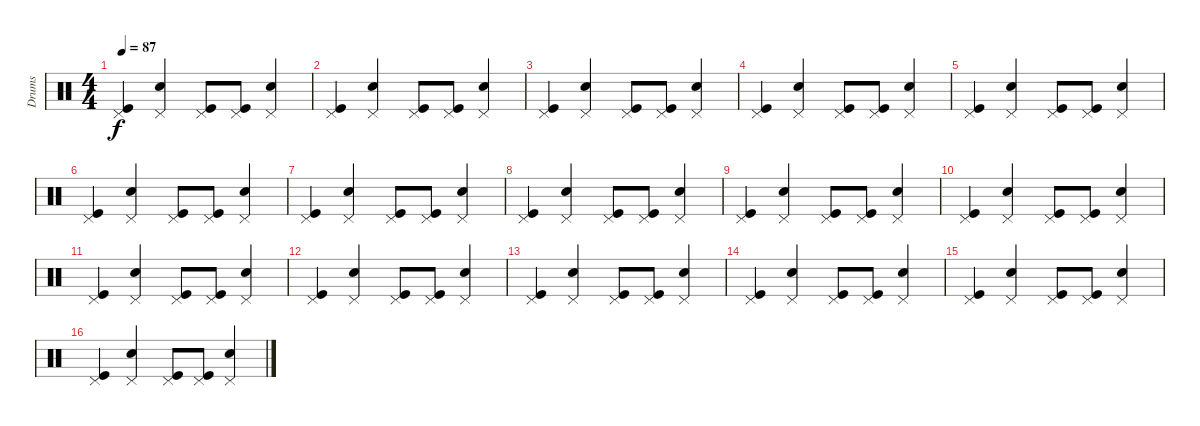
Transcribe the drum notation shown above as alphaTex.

\track ("Drums" "Drums") {instrument percussion}
\staff {score}
\articulation defaults
\ts (4 4)
\tempo 87
\clef neutral
\ks c
("Pedal Hi-Hat (hit)" "Kick (hit)").4{dy f} ("Pedal Hi-Hat (hit)" "Electric Snare (hit)").4 ("Pedal Hi-Hat (hit)" "Kick (hit)").8 ("Pedal Hi-Hat (hit)" "Kick (hit)").8 ("Pedal Hi-Hat (hit)" "Snare (hit) 2").4 |
("Pedal Hi-Hat (hit)" "Kick (hit)").4 ("Pedal Hi-Hat (hit)" "Electric Snare (hit)").4 ("Pedal Hi-Hat (hit)" "Kick (hit)").8 ("Pedal Hi-Hat (hit)" "Kick (hit)").8 ("Pedal Hi-Hat (hit)" "Snare (hit) 2").4 |
("Pedal Hi-Hat (hit)" "Kick (hit)").4 ("Pedal Hi-Hat (hit)" "Electric Snare (hit)").4 ("Pedal Hi-Hat (hit)" "Kick (hit)").8 ("Pedal Hi-Hat (hit)" "Kick (hit)").8 ("Pedal Hi-Hat (hit)" "Snare (hit) 2").4 |
("Pedal Hi-Hat (hit)" "Kick (hit)").4 ("Pedal Hi-Hat (hit)" "Electric Snare (hit)").4 ("Pedal Hi-Hat (hit)" "Kick (hit)").8 ("Pedal Hi-Hat (hit)" "Kick (hit)").8 ("Pedal Hi-Hat (hit)" "Snare (hit) 2").4 |
("Pedal Hi-Hat (hit)" "Kick (hit)").4 ("Pedal Hi-Hat (hit)" "Electric Snare (hit)").4 ("Pedal Hi-Hat (hit)" "Kick (hit)").8 ("Pedal Hi-Hat (hit)" "Kick (hit)").8 ("Pedal Hi-Hat (hit)" "Snare (hit) 2").4 |
("Pedal Hi-Hat (hit)" "Kick (hit)").4 ("Pedal Hi-Hat (hit)" "Electric Snare (hit)").4 ("Pedal Hi-Hat (hit)" "Kick (hit)").8 ("Pedal Hi-Hat (hit)" "Kick (hit)").8 ("Pedal Hi-Hat (hit)" "Snare (hit) 2").4 |
("Pedal Hi-Hat (hit)" "Kick (hit)").4 ("Pedal Hi-Hat (hit)" "Electric Snare (hit)").4 ("Pedal Hi-Hat (hit)" "Kick (hit)").8 ("Pedal Hi-Hat (hit)" "Kick (hit)").8 ("Pedal Hi-Hat (hit)" "Snare (hit) 2").4 |
("Pedal Hi-Hat (hit)" "Kick (hit)").4 ("Pedal Hi-Hat (hit)" "Electric Snare (hit)").4 ("Pedal Hi-Hat (hit)" "Kick (hit)").8 ("Pedal Hi-Hat (hit)" "Kick (hit)").8 ("Pedal Hi-Hat (hit)" "Snare (hit) 2").4 |
("Pedal Hi-Hat (hit)" "Kick (hit)").4 ("Pedal Hi-Hat (hit)" "Electric Snare (hit)").4 ("Pedal Hi-Hat (hit)" "Kick (hit)").8 ("Pedal Hi-Hat (hit)" "Kick (hit)").8 ("Pedal Hi-Hat (hit)" "Snare (hit) 2").4 |
("Pedal Hi-Hat (hit)" "Kick (hit)").4 ("Pedal Hi-Hat (hit)" "Electric Snare (hit)").4 ("Pedal Hi-Hat (hit)" "Kick (hit)").8 ("Pedal Hi-Hat (hit)" "Kick (hit)").8 ("Pedal Hi-Hat (hit)" "Snare (hit) 2").4 |
("Pedal Hi-Hat (hit)" "Kick (hit)").4 ("Pedal Hi-Hat (hit)" "Electric Snare (hit)").4 ("Pedal Hi-Hat (hit)" "Kick (hit)").8 ("Pedal Hi-Hat (hit)" "Kick (hit)").8 ("Pedal Hi-Hat (hit)" "Snare (hit) 2").4 |
("Pedal Hi-Hat (hit)" "Kick (hit)").4 ("Pedal Hi-Hat (hit)" "Electric Snare (hit)").4 ("Pedal Hi-Hat (hit)" "Kick (hit)").8 ("Pedal Hi-Hat (hit)" "Kick (hit)").8 ("Pedal Hi-Hat (hit)" "Snare (hit) 2").4 |
("Pedal Hi-Hat (hit)" "Kick (hit)").4 ("Pedal Hi-Hat (hit)" "Electric Snare (hit)").4 ("Pedal Hi-Hat (hit)" "Kick (hit)").8 ("Pedal Hi-Hat (hit)" "Kick (hit)").8 ("Pedal Hi-Hat (hit)" "Snare (hit) 2").4 |
("Pedal Hi-Hat (hit)" "Kick (hit)").4 ("Pedal Hi-Hat (hit)" "Electric Snare (hit)").4 ("Pedal Hi-Hat (hit)" "Kick (hit)").8 ("Pedal Hi-Hat (hit)" "Kick (hit)").8 ("Pedal Hi-Hat (hit)" "Snare (hit) 2").4 |
("Pedal Hi-Hat (hit)" "Kick (hit)").4 ("Pedal Hi-Hat (hit)" "Electric Snare (hit)").4 ("Pedal Hi-Hat (hit)" "Kick (hit)").8 ("Pedal Hi-Hat (hit)" "Kick (hit)").8 ("Pedal Hi-Hat (hit)" "Snare (hit) 2").4 |
("Pedal Hi-Hat (hit)" "Kick (hit)").4 ("Pedal Hi-Hat (hit)" "Electric Snare (hit)").4 ("Pedal Hi-Hat (hit)" "Kick (hit)").8 ("Pedal Hi-Hat (hit)" "Kick (hit)").8 ("Pedal Hi-Hat (hit)" "Snare (hit) 2").4
